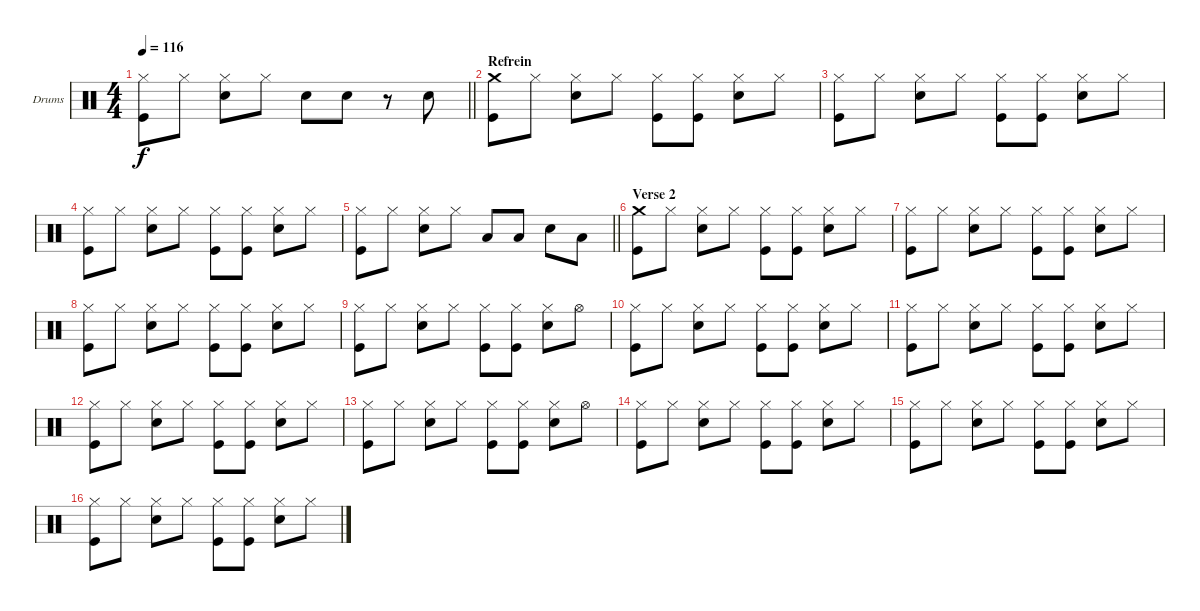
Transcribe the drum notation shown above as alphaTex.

\bracketExtendMode groupsimilarinstruments
\firstSystemTrackNameOrientation horizontal
\otherSystemsTrackNameOrientation horizontal
\track ("Drumkit" "Drums") {instrument percussion}
\staff {score}
\articulation defaults
\ts (4 4)
\tempo 116
\clef neutral
\barLineRight lightlight
\ks c
("Hi-Hat (closed)" "Kick (hit)").8{dy f} "Hi-Hat (closed)".8 ("Hi-Hat (closed)" "Snare (hit) 2").8 "Hi-Hat (closed)".8 "Snare (hit) 2".8 "Snare (hit) 2".8 r.8 "Snare (hit) 2".8 |
\section ("" "Refrein")
("Crash medium (hit)" "Kick (hit)").8 "Hi-Hat (closed)".8 ("Hi-Hat (closed)" "Snare (hit) 2").8 "Hi-Hat (closed)".8 ("Hi-Hat (closed)" "Kick (hit)").8 ("Hi-Hat (closed)" "Kick (hit)").8 ("Hi-Hat (closed)" "Snare (hit) 2").8 "Hi-Hat (closed)".8 |
("Hi-Hat (closed)" "Kick (hit)").8 "Hi-Hat (closed)".8 ("Hi-Hat (closed)" "Snare (hit) 2").8 "Hi-Hat (closed)".8 ("Hi-Hat (closed)" "Kick (hit)").8 ("Hi-Hat (closed)" "Kick (hit)").8 ("Hi-Hat (closed)" "Snare (hit) 2").8 "Hi-Hat (closed)".8 |
("Hi-Hat (closed)" "Kick (hit)").8 "Hi-Hat (closed)".8 ("Hi-Hat (closed)" "Snare (hit) 2").8 "Hi-Hat (closed)".8 ("Hi-Hat (closed)" "Kick (hit)").8 ("Hi-Hat (closed)" "Kick (hit)").8 ("Hi-Hat (closed)" "Snare (hit) 2").8 "Hi-Hat (closed)".8 |
\barLineRight lightlight
("Hi-Hat (closed)" "Kick (hit)").8 "Hi-Hat (closed)".8 ("Hi-Hat (closed)" "Snare (hit) 2").8 "Hi-Hat (closed)".8 "Low Tom (hit)".8 "Low Tom (hit)".8 "Snare (hit) 2".8 "Low Tom (hit)".8 |
\section ("" "Verse 2")
("Crash medium (hit)" "Kick (hit)").8 "Hi-Hat (closed)".8 ("Hi-Hat (closed)" "Snare (hit) 2").8 "Hi-Hat (closed)".8 ("Hi-Hat (closed)" "Kick (hit)").8 ("Hi-Hat (closed)" "Kick (hit)").8 ("Hi-Hat (closed)" "Snare (hit) 2").8 "Hi-Hat (closed)".8 |
("Hi-Hat (closed)" "Kick (hit)").8 "Hi-Hat (closed)".8 ("Hi-Hat (closed)" "Snare (hit) 2").8 "Hi-Hat (closed)".8 ("Hi-Hat (closed)" "Kick (hit)").8 ("Hi-Hat (closed)" "Kick (hit)").8 ("Hi-Hat (closed)" "Snare (hit) 2").8 "Hi-Hat (closed)".8 |
("Hi-Hat (closed)" "Kick (hit)").8 "Hi-Hat (closed)".8 ("Hi-Hat (closed)" "Snare (hit) 2").8 "Hi-Hat (closed)".8 ("Hi-Hat (closed)" "Kick (hit)").8 ("Hi-Hat (closed)" "Kick (hit)").8 ("Hi-Hat (closed)" "Snare (hit) 2").8 "Hi-Hat (closed)".8 |
("Hi-Hat (closed)" "Kick (hit)").8 "Hi-Hat (closed)".8 ("Hi-Hat (closed)" "Snare (hit) 2").8 "Hi-Hat (closed)".8 ("Hi-Hat (closed)" "Kick (hit)").8 ("Hi-Hat (closed)" "Kick (hit)").8 ("Hi-Hat (closed)" "Snare (hit) 2").8 "Hi-Hat (open)".8 |
("Hi-Hat (closed)" "Kick (hit)").8 "Hi-Hat (closed)".8 ("Hi-Hat (closed)" "Snare (hit) 2").8 "Hi-Hat (closed)".8 ("Hi-Hat (closed)" "Kick (hit)").8 ("Hi-Hat (closed)" "Kick (hit)").8 ("Hi-Hat (closed)" "Snare (hit) 2").8 "Hi-Hat (closed)".8 |
("Hi-Hat (closed)" "Kick (hit)").8 "Hi-Hat (closed)".8 ("Hi-Hat (closed)" "Snare (hit) 2").8 "Hi-Hat (closed)".8 ("Hi-Hat (closed)" "Kick (hit)").8 ("Hi-Hat (closed)" "Kick (hit)").8 ("Hi-Hat (closed)" "Snare (hit) 2").8 "Hi-Hat (closed)".8 |
("Hi-Hat (closed)" "Kick (hit)").8 "Hi-Hat (closed)".8 ("Hi-Hat (closed)" "Snare (hit) 2").8 "Hi-Hat (closed)".8 ("Hi-Hat (closed)" "Kick (hit)").8 ("Hi-Hat (closed)" "Kick (hit)").8 ("Hi-Hat (closed)" "Snare (hit) 2").8 "Hi-Hat (closed)".8 |
("Hi-Hat (closed)" "Kick (hit)").8 "Hi-Hat (closed)".8 ("Hi-Hat (closed)" "Snare (hit) 2").8 "Hi-Hat (closed)".8 ("Hi-Hat (closed)" "Kick (hit)").8 ("Hi-Hat (closed)" "Kick (hit)").8 ("Hi-Hat (closed)" "Snare (hit) 2").8 "Hi-Hat (open)".8 |
("Hi-Hat (closed)" "Kick (hit)").8 "Hi-Hat (closed)".8 ("Hi-Hat (closed)" "Snare (hit) 2").8 "Hi-Hat (closed)".8 ("Hi-Hat (closed)" "Kick (hit)").8 ("Hi-Hat (closed)" "Kick (hit)").8 ("Hi-Hat (closed)" "Snare (hit) 2").8 "Hi-Hat (closed)".8 |
("Hi-Hat (closed)" "Kick (hit)").8 "Hi-Hat (closed)".8 ("Hi-Hat (closed)" "Snare (hit) 2").8 "Hi-Hat (closed)".8 ("Hi-Hat (closed)" "Kick (hit)").8 ("Hi-Hat (closed)" "Kick (hit)").8 ("Hi-Hat (closed)" "Snare (hit) 2").8 "Hi-Hat (closed)".8 |
("Hi-Hat (closed)" "Kick (hit)").8 "Hi-Hat (closed)".8 ("Hi-Hat (closed)" "Snare (hit) 2").8 "Hi-Hat (closed)".8 ("Hi-Hat (closed)" "Kick (hit)").8 ("Hi-Hat (closed)" "Kick (hit)").8 ("Hi-Hat (closed)" "Snare (hit) 2").8 "Hi-Hat (closed)".8
